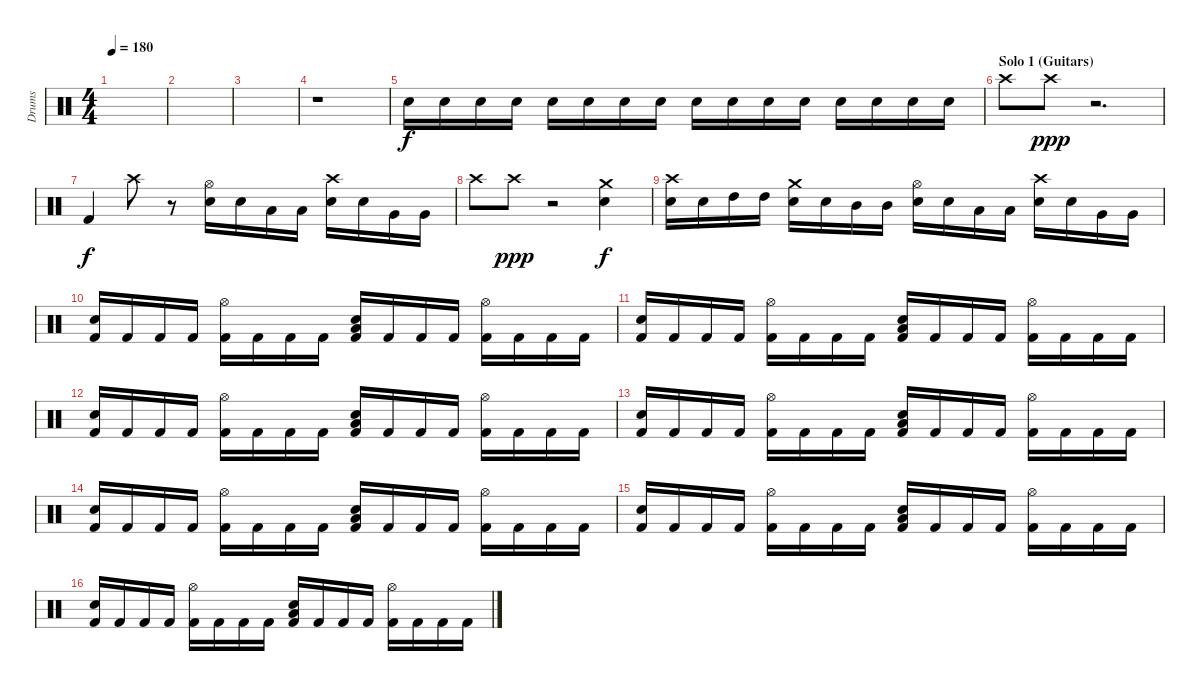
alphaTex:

\track ("Drums" "Drums") {instrument percussion}
\staff {score}
\articulation defaults
\ts (4 4)
\tempo 180
\clef neutral
\ks c
|
|
|
r.1{volume 0} |
"Electric Snare (hit)".16{volume 13} "Electric Snare (hit)".16 "Electric Snare (hit)".16 "Electric Snare (hit)".16 "Electric Snare (hit)".16 "Electric Snare (hit)".16 "Electric Snare (hit)".16 "Electric Snare (hit)".16 "Electric Snare (hit)".16 "Electric Snare (hit)".16 "Electric Snare (hit)".16 "Electric Snare (hit)".16 "Electric Snare (hit)".16 "Electric Snare (hit)".16 "Electric Snare (hit)".16 "Electric Snare (hit)".16 |
\section ("" "Solo 1 (Guitars)")
"Crash high (hit)".8 "Crash high (hit)".8{dy ppp} r.2{d} |
"Kick (hit) 2".4{dy f} "Crash high (hit)".8 r.8 ("Electric Snare (hit)" "Hi-Hat (open)").16 "Electric Snare (hit)".16 "Low Tom (hit)".16 "Low Tom (hit)".16 ("Electric Snare (hit)" "Crash high (hit)").16 "Electric Snare (hit)".16 "Very Low Tom (hit)".16 "Very Low Tom (hit)".16 |
"Crash high (hit)".8 "Crash high (hit)".8{dy ppp} r.2 ("Electric Snare (hit)" "Crash medium (hit)").4{dy f} |
("Electric Snare (hit)" "Crash high (hit)").16 "Electric Snare (hit)".16 "High Tom (hit)".16 "High Tom (hit)".16 ("Electric Snare (hit)" "Crash medium (hit)").16 "Electric Snare (hit)".16 "Mid Tom (hit)".16 "Mid Tom (hit)".16 ("Electric Snare (hit)" "Hi-Hat (open)").16 "Electric Snare (hit)".16 "Low Tom (hit)".16 "Low Tom (hit)".16 ("Electric Snare (hit)" "Crash high (hit)").16 "Electric Snare (hit)".16 "Very Low Tom (hit)".16 "Very Low Tom (hit)".16 |
("Kick (hit) 2" "Electric Snare (hit)").16 "Kick (hit) 2".16 "Kick (hit) 2".16 "Kick (hit) 2".16 ("Kick (hit) 2" "Hi-Hat (open)").16 "Kick (hit) 2".16 "Kick (hit) 2".16 "Kick (hit) 2".16 ("Kick (hit) 2" "Low Tom (hit)" "Electric Snare (hit)").16 "Kick (hit) 2".16 "Kick (hit) 2".16 "Kick (hit) 2".16 ("Kick (hit) 2" "Hi-Hat (open)").16 "Kick (hit) 2".16 "Kick (hit) 2".16 "Kick (hit) 2".16 |
("Kick (hit) 2" "Electric Snare (hit)").16 "Kick (hit) 2".16 "Kick (hit) 2".16 "Kick (hit) 2".16 ("Kick (hit) 2" "Hi-Hat (open)").16 "Kick (hit) 2".16 "Kick (hit) 2".16 "Kick (hit) 2".16 ("Kick (hit) 2" "Low Tom (hit)" "Electric Snare (hit)").16 "Kick (hit) 2".16 "Kick (hit) 2".16 "Kick (hit) 2".16 ("Kick (hit) 2" "Hi-Hat (open)").16 "Kick (hit) 2".16 "Kick (hit) 2".16 "Kick (hit) 2".16 |
("Kick (hit) 2" "Electric Snare (hit)").16 "Kick (hit) 2".16 "Kick (hit) 2".16 "Kick (hit) 2".16 ("Kick (hit) 2" "Hi-Hat (open)").16 "Kick (hit) 2".16 "Kick (hit) 2".16 "Kick (hit) 2".16 ("Kick (hit) 2" "Low Tom (hit)" "Electric Snare (hit)").16 "Kick (hit) 2".16 "Kick (hit) 2".16 "Kick (hit) 2".16 ("Kick (hit) 2" "Hi-Hat (open)").16 "Kick (hit) 2".16 "Kick (hit) 2".16 "Kick (hit) 2".16 |
("Kick (hit) 2" "Electric Snare (hit)").16 "Kick (hit) 2".16 "Kick (hit) 2".16 "Kick (hit) 2".16 ("Kick (hit) 2" "Hi-Hat (open)").16 "Kick (hit) 2".16 "Kick (hit) 2".16 "Kick (hit) 2".16 ("Kick (hit) 2" "Low Tom (hit)" "Electric Snare (hit)").16 "Kick (hit) 2".16 "Kick (hit) 2".16 "Kick (hit) 2".16 ("Kick (hit) 2" "Hi-Hat (open)").16 "Kick (hit) 2".16 "Kick (hit) 2".16 "Kick (hit) 2".16 |
("Kick (hit) 2" "Electric Snare (hit)").16 "Kick (hit) 2".16 "Kick (hit) 2".16 "Kick (hit) 2".16 ("Kick (hit) 2" "Hi-Hat (open)").16 "Kick (hit) 2".16 "Kick (hit) 2".16 "Kick (hit) 2".16 ("Kick (hit) 2" "Low Tom (hit)" "Electric Snare (hit)").16 "Kick (hit) 2".16 "Kick (hit) 2".16 "Kick (hit) 2".16 ("Kick (hit) 2" "Hi-Hat (open)").16 "Kick (hit) 2".16 "Kick (hit) 2".16 "Kick (hit) 2".16 |
("Kick (hit) 2" "Electric Snare (hit)").16 "Kick (hit) 2".16 "Kick (hit) 2".16 "Kick (hit) 2".16 ("Kick (hit) 2" "Hi-Hat (open)").16 "Kick (hit) 2".16 "Kick (hit) 2".16 "Kick (hit) 2".16 ("Kick (hit) 2" "Low Tom (hit)" "Electric Snare (hit)").16 "Kick (hit) 2".16 "Kick (hit) 2".16 "Kick (hit) 2".16 ("Kick (hit) 2" "Hi-Hat (open)").16 "Kick (hit) 2".16 "Kick (hit) 2".16 "Kick (hit) 2".16 |
("Kick (hit) 2" "Electric Snare (hit)").16 "Kick (hit) 2".16 "Kick (hit) 2".16 "Kick (hit) 2".16 ("Kick (hit) 2" "Hi-Hat (open)").16 "Kick (hit) 2".16 "Kick (hit) 2".16 "Kick (hit) 2".16 ("Kick (hit) 2" "Low Tom (hit)" "Electric Snare (hit)").16 "Kick (hit) 2".16 "Kick (hit) 2".16 "Kick (hit) 2".16 ("Kick (hit) 2" "Hi-Hat (open)").16 "Kick (hit) 2".16 "Kick (hit) 2".16 "Kick (hit) 2".16
